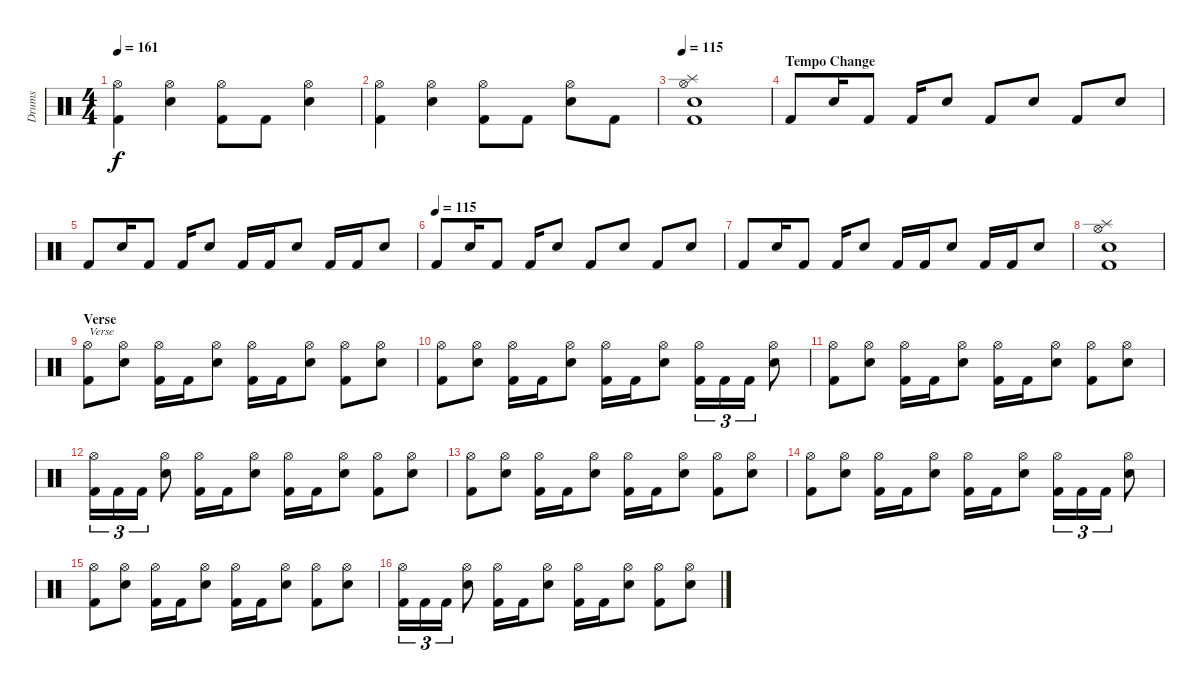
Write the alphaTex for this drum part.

\track ("Drums" "Drums") {instrument percussion}
\staff {score}
\articulation defaults
\ts (4 4)
\tempo 161
\clef neutral
\ks c
("Kick (hit) 2" "Hi-Hat (open)").4{dy f} ("Electric Snare (hit)" "Hi-Hat (open)").4 ("Kick (hit) 2" "Hi-Hat (open)").8 "Kick (hit) 2".8 ("Electric Snare (hit)" "Hi-Hat (open)").4 |
("Kick (hit) 2" "Hi-Hat (open)").4 ("Electric Snare (hit)" "Hi-Hat (open)").4 ("Kick (hit) 2" "Hi-Hat (open)").8 "Kick (hit) 2".8 ("Electric Snare (hit)" "Hi-Hat (open)").8 "Kick (hit) 2".8 |
\tempo 115
("Kick (hit) 2" "Electric Snare (hit)" "Hi-Hat (open)" "Splash (hit)").1 |
\section ("" "Tempo Change")
"Kick (hit) 2".8 "Electric Snare (hit)".16 "Kick (hit) 2".8 "Kick (hit) 2".16 "Electric Snare (hit)".8 "Kick (hit) 2".8 "Electric Snare (hit)".8 "Kick (hit) 2".8 "Electric Snare (hit)".8 |
"Kick (hit) 2".8 "Electric Snare (hit)".16 "Kick (hit) 2".8 "Kick (hit) 2".16 "Electric Snare (hit)".8 "Kick (hit) 2".16 "Kick (hit) 2".16 "Electric Snare (hit)".8 "Kick (hit) 2".16 "Kick (hit) 2".16 "Electric Snare (hit)".8 |
\tempo (115)
"Kick (hit) 2".8 "Electric Snare (hit)".16 "Kick (hit) 2".8 "Kick (hit) 2".16 "Electric Snare (hit)".8 "Kick (hit) 2".8 "Electric Snare (hit)".8 "Kick (hit) 2".8 "Electric Snare (hit)".8 |
"Kick (hit) 2".8 "Electric Snare (hit)".16 "Kick (hit) 2".8 "Kick (hit) 2".16 "Electric Snare (hit)".8 "Kick (hit) 2".16 "Kick (hit) 2".16 "Electric Snare (hit)".8 "Kick (hit) 2".16 "Kick (hit) 2".16 "Electric Snare (hit)".8 |
("Kick (hit) 2" "Electric Snare (hit)" "Hi-Hat (open)" "Splash (hit)").1 |
\section ("" "Verse")
("Kick (hit) 2" "Hi-Hat (open)").8{txt "Verse"} ("Electric Snare (hit)" "Hi-Hat (open)").8 ("Kick (hit) 2" "Hi-Hat (open)").16 "Kick (hit) 2".16 ("Electric Snare (hit)" "Hi-Hat (open)").8 ("Kick (hit) 2" "Hi-Hat (open)").16 "Kick (hit) 2".16 ("Electric Snare (hit)" "Hi-Hat (open)").8 ("Kick (hit) 2" "Hi-Hat (open)").8 ("Electric Snare (hit)" "Hi-Hat (open)").8 |
("Kick (hit) 2" "Hi-Hat (open)").8 ("Electric Snare (hit)" "Hi-Hat (open)").8 ("Kick (hit) 2" "Hi-Hat (open)").16 "Kick (hit) 2".16 ("Electric Snare (hit)" "Hi-Hat (open)").8 ("Kick (hit) 2" "Hi-Hat (open)").16 "Kick (hit) 2".16 ("Electric Snare (hit)" "Hi-Hat (open)").8 ("Kick (hit) 2" "Hi-Hat (open)").16{tu (3 2)} "Kick (hit) 2".16{tu (3 2)} "Kick (hit) 2".16{tu (3 2)} ("Electric Snare (hit)" "Hi-Hat (open)").8 |
("Kick (hit) 2" "Hi-Hat (open)").8 ("Electric Snare (hit)" "Hi-Hat (open)").8 ("Kick (hit) 2" "Hi-Hat (open)").16 "Kick (hit) 2".16 ("Electric Snare (hit)" "Hi-Hat (open)").8 ("Kick (hit) 2" "Hi-Hat (open)").16 "Kick (hit) 2".16 ("Electric Snare (hit)" "Hi-Hat (open)").8 ("Kick (hit) 2" "Hi-Hat (open)").8 ("Electric Snare (hit)" "Hi-Hat (open)").8 |
("Kick (hit) 2" "Hi-Hat (open)").16{tu (3 2)} "Kick (hit) 2".16{tu (3 2)} "Kick (hit) 2".16{tu (3 2)} ("Electric Snare (hit)" "Hi-Hat (open)").8 ("Kick (hit) 2" "Hi-Hat (open)").16 "Kick (hit) 2".16 ("Electric Snare (hit)" "Hi-Hat (open)").8 ("Kick (hit) 2" "Hi-Hat (open)").16 "Kick (hit) 2".16 ("Electric Snare (hit)" "Hi-Hat (open)").8 ("Kick (hit) 2" "Hi-Hat (open)").8 ("Electric Snare (hit)" "Hi-Hat (open)").8 |
("Kick (hit) 2" "Hi-Hat (open)").8 ("Electric Snare (hit)" "Hi-Hat (open)").8 ("Kick (hit) 2" "Hi-Hat (open)").16 "Kick (hit) 2".16 ("Electric Snare (hit)" "Hi-Hat (open)").8 ("Kick (hit) 2" "Hi-Hat (open)").16 "Kick (hit) 2".16 ("Electric Snare (hit)" "Hi-Hat (open)").8 ("Kick (hit) 2" "Hi-Hat (open)").8 ("Electric Snare (hit)" "Hi-Hat (open)").8 |
("Kick (hit) 2" "Hi-Hat (open)").8 ("Electric Snare (hit)" "Hi-Hat (open)").8 ("Kick (hit) 2" "Hi-Hat (open)").16 "Kick (hit) 2".16 ("Electric Snare (hit)" "Hi-Hat (open)").8 ("Kick (hit) 2" "Hi-Hat (open)").16 "Kick (hit) 2".16 ("Electric Snare (hit)" "Hi-Hat (open)").8 ("Kick (hit) 2" "Hi-Hat (open)").16{tu (3 2)} "Kick (hit) 2".16{tu (3 2)} "Kick (hit) 2".16{tu (3 2)} ("Electric Snare (hit)" "Hi-Hat (open)").8 |
("Kick (hit) 2" "Hi-Hat (open)").8 ("Electric Snare (hit)" "Hi-Hat (open)").8 ("Kick (hit) 2" "Hi-Hat (open)").16 "Kick (hit) 2".16 ("Electric Snare (hit)" "Hi-Hat (open)").8 ("Kick (hit) 2" "Hi-Hat (open)").16 "Kick (hit) 2".16 ("Electric Snare (hit)" "Hi-Hat (open)").8 ("Kick (hit) 2" "Hi-Hat (open)").8 ("Electric Snare (hit)" "Hi-Hat (open)").8 |
("Kick (hit) 2" "Hi-Hat (open)").16{tu (3 2)} "Kick (hit) 2".16{tu (3 2)} "Kick (hit) 2".16{tu (3 2)} ("Electric Snare (hit)" "Hi-Hat (open)").8 ("Kick (hit) 2" "Hi-Hat (open)").16 "Kick (hit) 2".16 ("Electric Snare (hit)" "Hi-Hat (open)").8 ("Kick (hit) 2" "Hi-Hat (open)").16 "Kick (hit) 2".16 ("Electric Snare (hit)" "Hi-Hat (open)").8 ("Kick (hit) 2" "Hi-Hat (open)").8 ("Electric Snare (hit)" "Hi-Hat (open)").8
